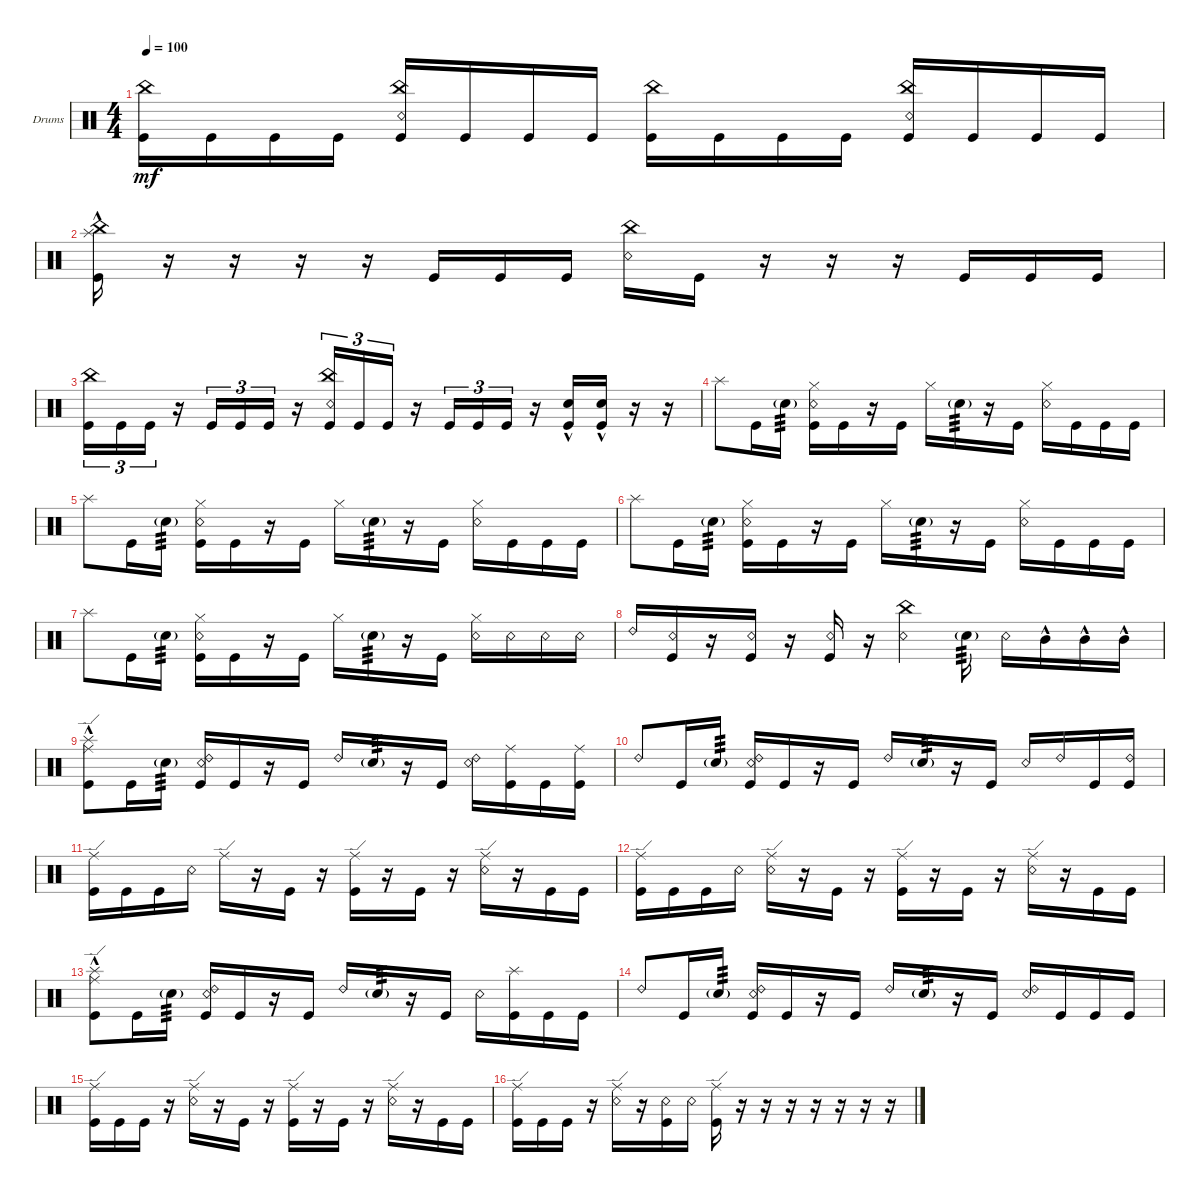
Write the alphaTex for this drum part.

\defaultSystemsLayout 4
\bracketExtendMode groupsimilarinstruments
\firstSystemTrackNameOrientation horizontal
\otherSystemsTrackNameOrientation horizontal
\track ("Drumkit" "Drums") {instrument percussion}
\staff {score}
\articulation defaults
\ts (4 4)
\tempo 100
\clef neutral
\ks c
("Kick (hit)" "China (hit)").16{dy mf} "Kick (hit)".16 "Kick (hit)".16 "Kick (hit)".16 ("Kick (hit)" "Snare (rim shot)" "China (hit)").16 "Kick (hit)".16 "Kick (hit)".16 "Kick (hit)".16 ("Kick (hit)" "China (hit)").16 "Kick (hit)".16 "Kick (hit)".16 "Kick (hit)".16 ("Kick (hit)" "Snare (rim shot)" "China (hit)").16 "Kick (hit)".16 "Kick (hit)".16 "Kick (hit)".16 |
("Kick (hit)"{hac} "China (hit)"{hac} "Splash (hit)"{hac}).16 r.16 r.16 r.16 r.16 "Kick (hit)".16 "Kick (hit)".16 "Kick (hit)".16 ("Snare (rim shot)" "China (hit)").16 "Kick (hit)".16 r.16 r.16 r.16 "Kick (hit)".16 "Kick (hit)".16 "Kick (hit)".16 |
("Kick (hit)" "China (hit)").16{tu (3 2)} "Kick (hit)".16{tu (3 2)} "Kick (hit)".16{tu (3 2)} r.16 "Kick (hit)".16{tu (3 2)} "Kick (hit)".16{tu (3 2)} "Kick (hit)".16{tu (3 2)} r.16 ("Kick (hit)" "Snare (rim shot)" "China (hit)").16{tu (3 2)} "Kick (hit)".16{tu (3 2)} "Kick (hit)".16{tu (3 2)} r.16 "Kick (hit)".16{tu (3 2)} "Kick (hit)".16{tu (3 2)} "Kick (hit)".16{tu (3 2)} r.16 ("Kick (hit)"{hac} "Snare (hit) 2"{hac}).16 ("Kick (hit)"{hac} "Snare (hit) 2"{hac}).16 r.16 r.16 |
"Splash (hit)".8 "Kick (hit)".16 "Snare (hit) 2"{g}.16{tp 3} ("Kick (hit)" "Snare (rim shot)" "Hi-Hat (closed)").16 "Kick (hit)".16 r.16 "Kick (hit)".16 "Hi-Hat (closed)".16 "Snare (hit) 2"{g}.16{tp 3} r.16 "Kick (hit)".16 ("Snare (rim shot)" "Hi-Hat (closed)").16 "Kick (hit)".16 "Kick (hit)".16 "Kick (hit)".16 |
"Splash (hit)".8 "Kick (hit)".16 "Snare (hit) 2"{g}.16{tp 3} ("Kick (hit)" "Snare (rim shot)" "Hi-Hat (closed)").16 "Kick (hit)".16 r.16 "Kick (hit)".16 "Hi-Hat (closed)".16 "Snare (hit) 2"{g}.16{tp 3} r.16 "Kick (hit)".16 ("Snare (rim shot)" "Hi-Hat (closed)").16 "Kick (hit)".16 "Kick (hit)".16 "Kick (hit)".16 |
"Splash (hit)".8 "Kick (hit)".16 "Snare (hit) 2"{g}.16{tp 3} ("Kick (hit)" "Snare (rim shot)" "Hi-Hat (closed)").16 "Kick (hit)".16 r.16 "Kick (hit)".16 "Hi-Hat (closed)".16 "Snare (hit) 2"{g}.16{tp 3} r.16 "Kick (hit)".16 ("Snare (rim shot)" "Hi-Hat (closed)").16 "Kick (hit)".16 "Kick (hit)".16 "Kick (hit)".16 |
"Splash (hit)".8 "Kick (hit)".16 "Snare (hit) 2"{g}.16{tp 3} ("Kick (hit)" "Snare (rim shot)" "Hi-Hat (closed)").16 "Kick (hit)".16 r.16 "Kick (hit)".16 "Hi-Hat (closed)".16 "Snare (hit) 2"{g}.16{tp 3} r.16 "Kick (hit)".16 ("Snare (rim shot)" "Hi-Hat (closed)").16 "Snare (rim shot)".16 "Snare (rim shot)".16 "Snare (rim shot)".16 |
"Ride (bell) 2".16 ("Kick (hit)" "Snare (rim shot)").16 r.16 ("Kick (hit)" "Snare (rim shot)").16 r.16 ("Kick (hit)" "Snare (rim shot)").16 r.16 ("Snare (rim shot)" "China (hit)").4 "Snare (hit) 2"{g}.16{tp 3} "Snare (rim shot)".16 "Mid Tom (hit)"{hac}.16 "Mid Tom (hit)"{hac}.16 "Mid Tom (hit)"{hac}.16 |
("Splash (hit)"{hac} "Ride (edge)"{hac} "Kick (hit)"{hac}).8 "Kick (hit)".16 "Snare (hit) 2"{g}.16{tp 3} ("Kick (hit)" "Snare (rim shot)" "Ride (bell) 2").16 "Kick (hit)".16 r.16 "Kick (hit)".16 "Ride (bell) 2".16 "Snare (hit) 2"{g}.16{tp 3} r.16 "Kick (hit)".16 ("Snare (rim shot)" "Ride (bell) 2").16 ("Kick (hit)" "Ride (middle)").16 "Kick (hit)".16 ("Kick (hit)" "Ride (middle)").16 |
"Ride (bell) 2".8 "Kick (hit)".16 "Snare (hit) 2"{g}.16{tp 3} ("Kick (hit)" "Snare (rim shot)" "Ride (bell) 2").16 "Kick (hit)".16 r.16 "Kick (hit)".16 "Ride (bell) 2".16 "Snare (hit) 2"{g}.16{tp 3} r.16 "Kick (hit)".16 "Snare (rim shot)".16 "Ride (bell) 2".16 "Kick (hit)".16 ("Kick (hit)" "Ride (bell) 2").16 |
("Ride (edge)" "Kick (hit)").16 "Kick (hit)".16 "Kick (hit)".16 "Snare (rim shot)".16 "Ride (edge)".16 r.16 "Kick (hit)".16 r.16 ("Kick (hit)" "Ride (edge)").16 r.16 "Kick (hit)".16 r.16 ("Snare (rim shot)" "Ride (edge)").16 r.16 "Kick (hit)".16 "Kick (hit)".16 |
("Ride (edge)" "Kick (hit)").16 "Kick (hit)".16 "Kick (hit)".16 "Snare (rim shot)".16 ("Snare (rim shot)" "Ride (edge)").16 r.16 "Kick (hit)".16 r.16 ("Kick (hit)" "Ride (edge)").16 r.16 "Kick (hit)".16 r.16 ("Snare (rim shot)" "Ride (edge)").16 r.16 "Kick (hit)".16 "Kick (hit)".16 |
("Splash (hit)"{hac} "Ride (edge)"{hac} "Kick (hit)"{hac}).8 "Kick (hit)".16 "Snare (hit) 2"{g}.16{tp 3} ("Kick (hit)" "Snare (rim shot)" "Ride (bell) 2").16 "Kick (hit)".16 r.16 "Kick (hit)".16 "Ride (bell) 2".16 "Snare (hit) 2"{g}.16{tp 3} r.16 "Kick (hit)".16 "Snare (rim shot)".16 ("Kick (hit)" "Splash (hit)").16 "Kick (hit)".16 "Kick (hit)".16 |
"Ride (bell) 2".8 "Kick (hit)".16 "Snare (hit) 2"{g}.16{tp 3} ("Kick (hit)" "Snare (rim shot)" "Ride (bell) 2").16 "Kick (hit)".16 r.16 "Kick (hit)".16 "Ride (bell) 2".16 "Snare (hit) 2"{g}.16{tp 3} r.16 "Kick (hit)".16 ("Snare (rim shot)" "Ride (bell) 2").16 "Kick (hit)".16 "Kick (hit)".16 "Kick (hit)".16 |
("Ride (edge)" "Kick (hit)").16 "Kick (hit)".16 "Kick (hit)".16 r.16 ("Snare (rim shot)" "Ride (edge)").16 r.16 "Kick (hit)".16 r.16 ("Kick (hit)" "Ride (edge)").16 r.16 "Kick (hit)".16 r.16 ("Snare (rim shot)" "Ride (edge)").16 r.16 "Kick (hit)".16 "Kick (hit)".16 |
("Ride (edge)" "Kick (hit)").16 "Kick (hit)".16 "Kick (hit)".16 r.16 ("Snare (rim shot)" "Ride (edge)").16 r.16 ("Kick (hit)" "Snare (rim shot)").16 "Snare (rim shot)".16 ("Kick (hit)" "Ride (edge)").16 r.16 r.16 r.16 r.16 r.16 r.16 r.16
